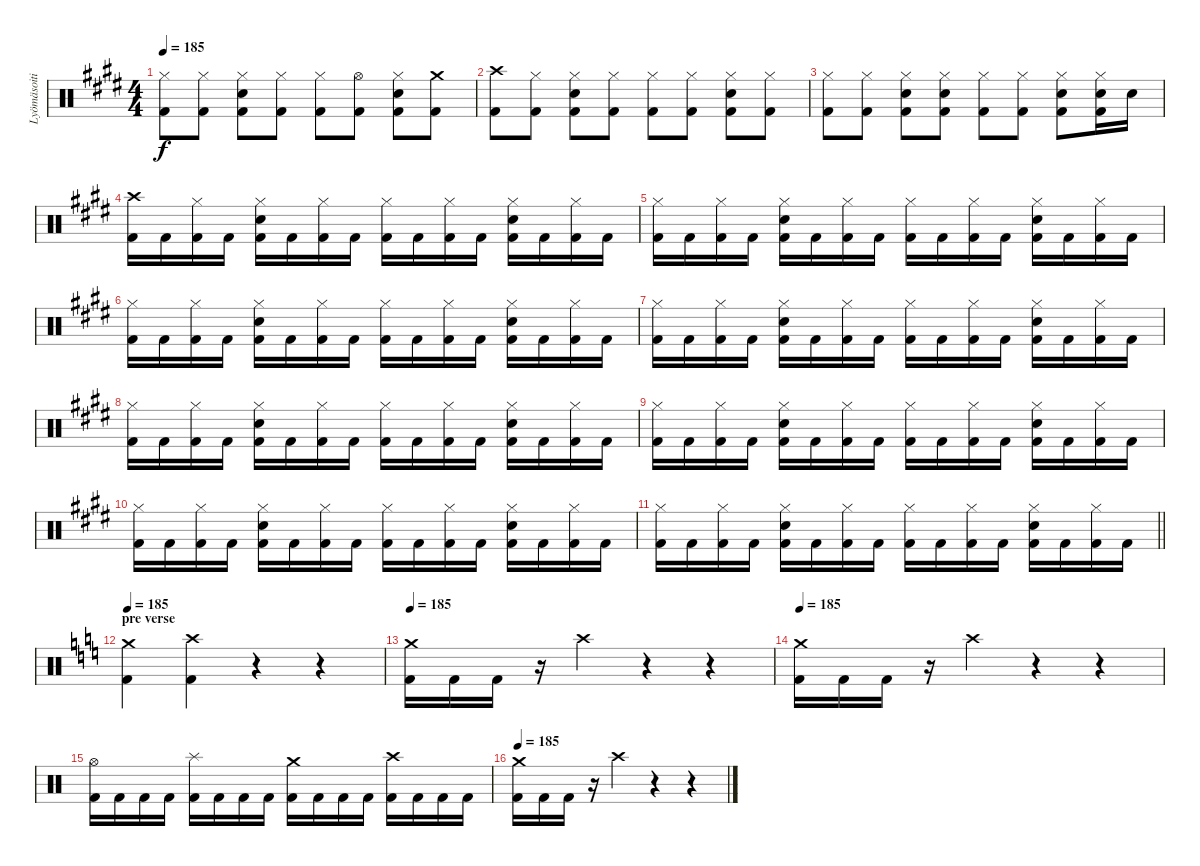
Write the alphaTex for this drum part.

\track ("Lyömäsoitin" "Lyömäsoiti") {instrument percussion}
\staff {score}
\articulation defaults
\ts (4 4)
\tempo 185
\clef neutral
\ks e
("Hi-Hat (closed)" "Kick (hit) 2").8{dy f} ("Hi-Hat (closed)" "Kick (hit) 2").8 ("Hi-Hat (closed)" "Electric Snare (hit)" "Kick (hit) 2").8 ("Hi-Hat (closed)" "Kick (hit) 2").8 ("Hi-Hat (closed)" "Kick (hit) 2").8 ("Hi-Hat (open)" "Kick (hit) 2").8 ("Hi-Hat (closed)" "Electric Snare (hit)" "Kick (hit) 2").8 ("Crash medium (hit)" "Kick (hit) 2").8 |
("Crash high (hit)" "Kick (hit) 2").8 ("Hi-Hat (closed)" "Kick (hit) 2").8 ("Hi-Hat (closed)" "Electric Snare (hit)" "Kick (hit) 2").8 ("Hi-Hat (closed)" "Kick (hit) 2").8 ("Hi-Hat (closed)" "Kick (hit) 2").8 ("Hi-Hat (closed)" "Kick (hit) 2").8 ("Hi-Hat (closed)" "Electric Snare (hit)" "Kick (hit) 2").8 ("Hi-Hat (closed)" "Kick (hit) 2").8 |
("Hi-Hat (closed)" "Kick (hit) 2").8 ("Hi-Hat (closed)" "Kick (hit) 2").8 ("Hi-Hat (closed)" "Electric Snare (hit)" "Kick (hit) 2").8 ("Hi-Hat (closed)" "Electric Snare (hit)" "Kick (hit) 2").8 ("Hi-Hat (closed)" "Kick (hit) 2").8 ("Hi-Hat (closed)" "Kick (hit) 2").8 ("Hi-Hat (closed)" "Electric Snare (hit)" "Kick (hit) 2").8 ("Hi-Hat (closed)" "Electric Snare (hit)" "Kick (hit) 2").16 "Electric Snare (hit)".16 |
("Crash high (hit)" "Kick (hit) 2").16 "Kick (hit) 2".16 ("Hi-Hat (closed)" "Kick (hit) 2").16 "Kick (hit) 2".16 ("Hi-Hat (closed)" "Electric Snare (hit)" "Kick (hit) 2").16 "Kick (hit) 2".16 ("Hi-Hat (closed)" "Kick (hit) 2").16 "Kick (hit) 2".16 ("Hi-Hat (closed)" "Kick (hit) 2").16 "Kick (hit) 2".16 ("Hi-Hat (closed)" "Kick (hit) 2").16 "Kick (hit) 2".16 ("Hi-Hat (closed)" "Electric Snare (hit)" "Kick (hit) 2").16 "Kick (hit) 2".16 ("Hi-Hat (closed)" "Kick (hit) 2").16 "Kick (hit) 2".16 |
("Hi-Hat (closed)" "Kick (hit) 2").16 "Kick (hit) 2".16 ("Hi-Hat (closed)" "Kick (hit) 2").16 "Kick (hit) 2".16 ("Hi-Hat (closed)" "Electric Snare (hit)" "Kick (hit) 2").16 "Kick (hit) 2".16 ("Hi-Hat (closed)" "Kick (hit) 2").16 "Kick (hit) 2".16 ("Hi-Hat (closed)" "Kick (hit) 2").16 "Kick (hit) 2".16 ("Hi-Hat (closed)" "Kick (hit) 2").16 "Kick (hit) 2".16 ("Hi-Hat (closed)" "Electric Snare (hit)" "Kick (hit) 2").16 "Kick (hit) 2".16 ("Hi-Hat (closed)" "Kick (hit) 2").16 "Kick (hit) 2".16 |
("Hi-Hat (closed)" "Kick (hit) 2").16 "Kick (hit) 2".16 ("Hi-Hat (closed)" "Kick (hit) 2").16 "Kick (hit) 2".16 ("Hi-Hat (closed)" "Electric Snare (hit)" "Kick (hit) 2").16 "Kick (hit) 2".16 ("Hi-Hat (closed)" "Kick (hit) 2").16 "Kick (hit) 2".16 ("Hi-Hat (closed)" "Kick (hit) 2").16 "Kick (hit) 2".16 ("Hi-Hat (closed)" "Kick (hit) 2").16 "Kick (hit) 2".16 ("Hi-Hat (closed)" "Electric Snare (hit)" "Kick (hit) 2").16 "Kick (hit) 2".16 ("Hi-Hat (closed)" "Kick (hit) 2").16 "Kick (hit) 2".16 |
("Hi-Hat (closed)" "Kick (hit) 2").16 "Kick (hit) 2".16 ("Hi-Hat (closed)" "Kick (hit) 2").16 "Kick (hit) 2".16 ("Hi-Hat (closed)" "Electric Snare (hit)" "Kick (hit) 2").16 "Kick (hit) 2".16 ("Hi-Hat (closed)" "Kick (hit) 2").16 "Kick (hit) 2".16 ("Hi-Hat (closed)" "Kick (hit) 2").16 "Kick (hit) 2".16 ("Hi-Hat (closed)" "Kick (hit) 2").16 "Kick (hit) 2".16 ("Hi-Hat (closed)" "Electric Snare (hit)" "Kick (hit) 2").16 "Kick (hit) 2".16 ("Hi-Hat (closed)" "Kick (hit) 2").16 "Kick (hit) 2".16 |
("Hi-Hat (closed)" "Kick (hit) 2").16 "Kick (hit) 2".16 ("Hi-Hat (closed)" "Kick (hit) 2").16 "Kick (hit) 2".16 ("Hi-Hat (closed)" "Electric Snare (hit)" "Kick (hit) 2").16 "Kick (hit) 2".16 ("Hi-Hat (closed)" "Kick (hit) 2").16 "Kick (hit) 2".16 ("Hi-Hat (closed)" "Kick (hit) 2").16 "Kick (hit) 2".16 ("Hi-Hat (closed)" "Kick (hit) 2").16 "Kick (hit) 2".16 ("Hi-Hat (closed)" "Electric Snare (hit)" "Kick (hit) 2").16 "Kick (hit) 2".16 ("Hi-Hat (closed)" "Kick (hit) 2").16 "Kick (hit) 2".16 |
("Hi-Hat (closed)" "Kick (hit) 2").16 "Kick (hit) 2".16 ("Hi-Hat (closed)" "Kick (hit) 2").16 "Kick (hit) 2".16 ("Hi-Hat (closed)" "Electric Snare (hit)" "Kick (hit) 2").16 "Kick (hit) 2".16 ("Hi-Hat (closed)" "Kick (hit) 2").16 "Kick (hit) 2".16 ("Hi-Hat (closed)" "Kick (hit) 2").16 "Kick (hit) 2".16 ("Hi-Hat (closed)" "Kick (hit) 2").16 "Kick (hit) 2".16 ("Hi-Hat (closed)" "Electric Snare (hit)" "Kick (hit) 2").16 "Kick (hit) 2".16 ("Hi-Hat (closed)" "Kick (hit) 2").16 "Kick (hit) 2".16 |
("Hi-Hat (closed)" "Kick (hit) 2").16 "Kick (hit) 2".16 ("Hi-Hat (closed)" "Kick (hit) 2").16 "Kick (hit) 2".16 ("Hi-Hat (closed)" "Electric Snare (hit)" "Kick (hit) 2").16 "Kick (hit) 2".16 ("Hi-Hat (closed)" "Kick (hit) 2").16 "Kick (hit) 2".16 ("Hi-Hat (closed)" "Kick (hit) 2").16 "Kick (hit) 2".16 ("Hi-Hat (closed)" "Kick (hit) 2").16 "Kick (hit) 2".16 ("Hi-Hat (closed)" "Electric Snare (hit)" "Kick (hit) 2").16 "Kick (hit) 2".16 ("Hi-Hat (closed)" "Kick (hit) 2").16 "Kick (hit) 2".16 |
\barLineRight lightlight
("Hi-Hat (closed)" "Kick (hit) 2").16 "Kick (hit) 2".16 ("Hi-Hat (closed)" "Kick (hit) 2").16 "Kick (hit) 2".16 ("Hi-Hat (closed)" "Electric Snare (hit)" "Kick (hit) 2").16 "Kick (hit) 2".16 ("Hi-Hat (closed)" "Kick (hit) 2").16 "Kick (hit) 2".16 ("Hi-Hat (closed)" "Kick (hit) 2").16 "Kick (hit) 2".16 ("Hi-Hat (closed)" "Kick (hit) 2").16 "Kick (hit) 2".16 ("Hi-Hat (closed)" "Electric Snare (hit)" "Kick (hit) 2").16 "Kick (hit) 2".16 ("Hi-Hat (closed)" "Kick (hit) 2").16 "Kick (hit) 2".16 |
\section ("" "pre verse")
\tempo 185
\ks c
("Crash medium (hit)" "Kick (hit) 2").4 ("Crash high (hit)" "Kick (hit) 2").4 r.4 r.4 |
\tempo 185
("Crash medium (hit)" "Kick (hit) 2").16 "Kick (hit) 2".16 "Kick (hit) 2".16 r.16 "Crash high (hit)".4 r.4 r.4 |
\tempo 185
("Crash medium (hit)" "Kick (hit) 2").16 "Kick (hit) 2".16 "Kick (hit) 2".16 r.16 "Crash high (hit)".4 r.4 r.4 |
("Hi-Hat (open)" "Kick (hit) 2").16 "Kick (hit) 2".16 "Kick (hit) 2".16 "Kick (hit) 2".16 ("Splash (hit)" "Kick (hit) 2").16 "Kick (hit) 2".16 "Kick (hit) 2".16 "Kick (hit) 2".16 ("Crash medium (hit)" "Kick (hit) 2").16 "Kick (hit) 2".16 "Kick (hit) 2".16 "Kick (hit) 2".16 ("Crash high (hit)" "Kick (hit) 2").16 "Kick (hit) 2".16 "Kick (hit) 2".16 "Kick (hit) 2".16 |
\tempo 185
("Crash medium (hit)" "Kick (hit) 2").16 "Kick (hit) 2".16 "Kick (hit) 2".16 r.16 "Crash high (hit)".4 r.4 r.4
